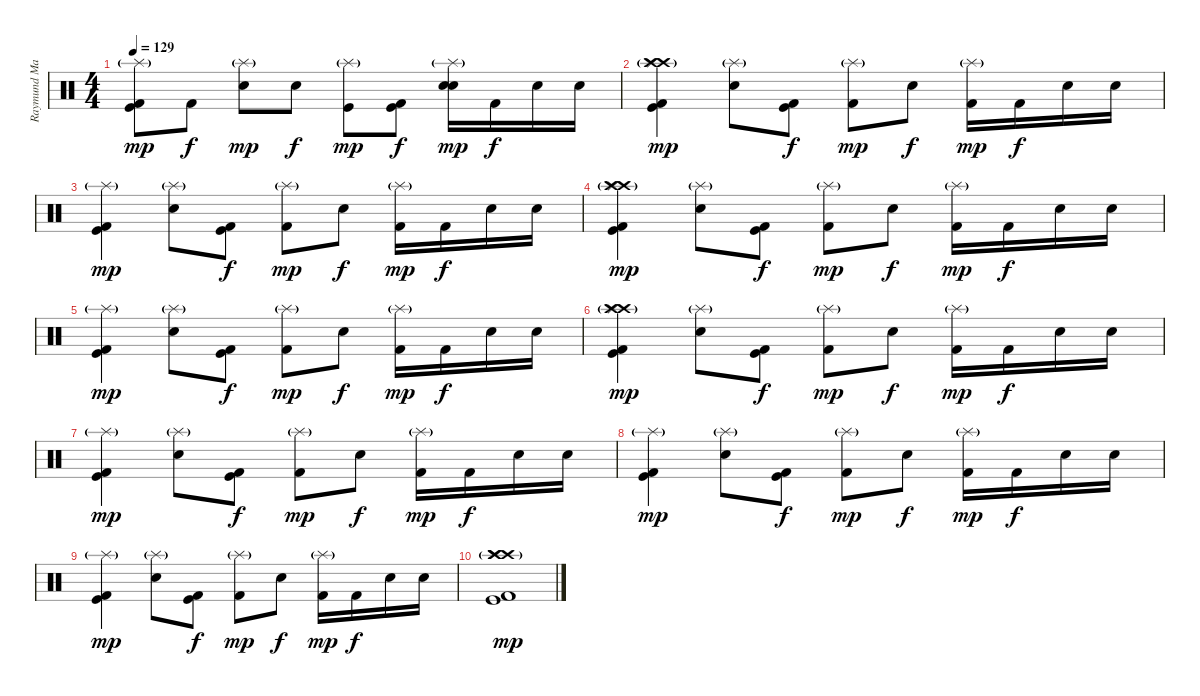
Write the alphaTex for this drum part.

\track ("Raymund Marasigan(Drums)" "Raymund Ma") {instrument percussion}
\staff {score}
\articulation defaults
\ts (4 4)
\tempo 129
\clef neutral
\ks c
("Kick (hit) 2" "Kick (hit)" "Splash (hit)"{g}).8{dy mp} "Kick (hit) 2".8{dy f} ("Electric Snare (hit)" "Splash (hit)"{g}).8{dy mp} "Electric Snare (hit)".8{dy f} ("Kick (hit)" "Splash (hit)"{g}).8{dy mp} ("Kick (hit) 2" "Kick (hit)").8{dy f} ("Electric Snare (hit)" "Snare (hit) 2" "Splash (hit)"{g}).16{dy mp} "Kick (hit) 2".16{dy f} "Electric Snare (hit)".16 "Electric Snare (hit)".16 |
("Crash high (hit)"{g} "Crash high (hit)"{g} "Kick (hit) 2" "Kick (hit)" "Splash (hit)"{g}).4{dy mp} ("Electric Snare (hit)" "Splash (hit)"{g}).8 ("Kick (hit) 2" "Kick (hit)").8{dy f} ("Kick (hit) 2" "Splash (hit)"{g}).8{dy mp} "Electric Snare (hit)".8{dy f} ("Splash (hit)"{g} "Kick (hit) 2").16{dy mp} "Kick (hit) 2".16{dy f} "Electric Snare (hit)".16 "Electric Snare (hit)".16 |
("Kick (hit) 2" "Kick (hit)" "Splash (hit)"{g}).4{dy mp} ("Electric Snare (hit)" "Splash (hit)"{g}).8 ("Kick (hit) 2" "Kick (hit)").8{dy f} ("Kick (hit) 2" "Splash (hit)"{g}).8{dy mp} "Electric Snare (hit)".8{dy f} ("Splash (hit)"{g} "Kick (hit) 2").16{dy mp} "Kick (hit) 2".16{dy f} "Electric Snare (hit)".16 "Electric Snare (hit)".16 |
("Crash high (hit)"{g} "Crash high (hit)"{g} "Kick (hit) 2" "Kick (hit)" "Splash (hit)"{g}).4{dy mp} ("Electric Snare (hit)" "Splash (hit)"{g}).8 ("Kick (hit) 2" "Kick (hit)").8{dy f} ("Kick (hit) 2" "Splash (hit)"{g}).8{dy mp} "Electric Snare (hit)".8{dy f} ("Splash (hit)"{g} "Kick (hit) 2").16{dy mp} "Kick (hit) 2".16{dy f} "Electric Snare (hit)".16 "Electric Snare (hit)".16 |
("Kick (hit) 2" "Kick (hit)" "Splash (hit)"{g}).4{dy mp} ("Electric Snare (hit)" "Splash (hit)"{g}).8 ("Kick (hit) 2" "Kick (hit)").8{dy f} ("Kick (hit) 2" "Splash (hit)"{g}).8{dy mp} "Electric Snare (hit)".8{dy f} ("Splash (hit)"{g} "Kick (hit) 2").16{dy mp} "Kick (hit) 2".16{dy f} "Electric Snare (hit)".16 "Electric Snare (hit)".16 |
("Crash high (hit)"{g} "Crash high (hit)"{g} "Kick (hit) 2" "Kick (hit)" "Splash (hit)"{g}).4{dy mp} ("Electric Snare (hit)" "Splash (hit)"{g}).8 ("Kick (hit) 2" "Kick (hit)").8{dy f} ("Kick (hit) 2" "Splash (hit)"{g}).8{dy mp} "Electric Snare (hit)".8{dy f} ("Splash (hit)"{g} "Kick (hit) 2").16{dy mp} "Kick (hit) 2".16{dy f} "Electric Snare (hit)".16 "Electric Snare (hit)".16 |
("Kick (hit) 2" "Kick (hit)" "Splash (hit)"{g}).4{dy mp} ("Electric Snare (hit)" "Splash (hit)"{g}).8 ("Kick (hit) 2" "Kick (hit)").8{dy f} ("Kick (hit) 2" "Splash (hit)"{g}).8{dy mp} "Electric Snare (hit)".8{dy f} ("Splash (hit)"{g} "Kick (hit) 2").16{dy mp} "Kick (hit) 2".16{dy f} "Electric Snare (hit)".16 "Electric Snare (hit)".16 |
("Kick (hit) 2" "Kick (hit)" "Splash (hit)"{g}).4{dy mp} ("Electric Snare (hit)" "Splash (hit)"{g}).8 ("Kick (hit) 2" "Kick (hit)").8{dy f} ("Kick (hit) 2" "Splash (hit)"{g}).8{dy mp} "Electric Snare (hit)".8{dy f} ("Splash (hit)"{g} "Kick (hit) 2").16{dy mp} "Kick (hit) 2".16{dy f} "Electric Snare (hit)".16 "Electric Snare (hit)".16 |
("Kick (hit) 2" "Kick (hit)" "Splash (hit)"{g}).4{dy mp} ("Electric Snare (hit)" "Splash (hit)"{g}).8 ("Kick (hit) 2" "Kick (hit)").8{dy f} ("Kick (hit) 2" "Splash (hit)"{g}).8{dy mp} "Electric Snare (hit)".8{dy f} ("Splash (hit)"{g} "Kick (hit) 2").16{dy mp} "Kick (hit) 2".16{dy f} "Electric Snare (hit)".16 "Electric Snare (hit)".16 |
("Crash high (hit)"{g} "Crash high (hit)"{g} "Crash high (hit)"{g} "Kick (hit) 2" "Kick (hit)").1{dy mp}
